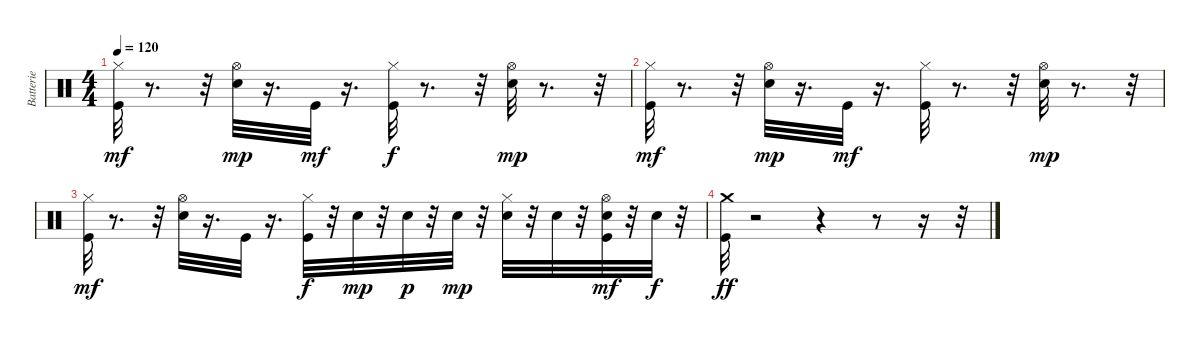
\track ("Batterie" "Batterie") {instrument percussion}
\staff {score}
\articulation defaults
\ts (4 4)
\tempo 120
\clef neutral
\ks c
("Hi-Hat (closed)" "Kick (hit)").32{dy mf} r.8{d} r.32 ("Hi-Hat (open)" "Electric Snare (hit)").32{dy mp} r.16{d} "Kick (hit)".32{dy mf} r.16{d} ("Hi-Hat (closed)" "Kick (hit)").32{dy f} r.8{d} r.32 ("Hi-Hat (open)" "Electric Snare (hit)").32{dy mp} r.8{d} r.32 |
("Hi-Hat (closed)" "Kick (hit)").32{dy mf} r.8{d} r.32 ("Hi-Hat (open)" "Electric Snare (hit)").32{dy mp} r.16{d} "Kick (hit)".32{dy mf} r.16{d} ("Hi-Hat (closed)" "Kick (hit)").32 r.8{d} r.32 ("Hi-Hat (open)" "Electric Snare (hit)").32{dy mp} r.8{d} r.32 |
("Hi-Hat (closed)" "Kick (hit)").32{dy mf} r.8{d} r.32 ("Hi-Hat (open)" "Electric Snare (hit)").32 r.16{d} "Kick (hit)".32 r.16{d} ("Hi-Hat (closed)" "Kick (hit)").32{dy f} r.32 "Electric Snare (hit)".32{dy mp} r.32 "Electric Snare (hit)".32{dy p} r.32 "Electric Snare (hit)".32{dy mp} r.32 ("Hi-Hat (closed)" "Electric Snare (hit)").32 r.32 "Electric Snare (hit)".32 r.32 ("Hi-Hat (open)" "Electric Snare (hit)" "Kick (hit)").32{dy mf} r.32 "Electric Snare (hit)".32{dy f} r.32 |
("Crash medium (hit)" "Kick (hit)").32{dy ff} r.2 r.4 r.8 r.16 r.32
